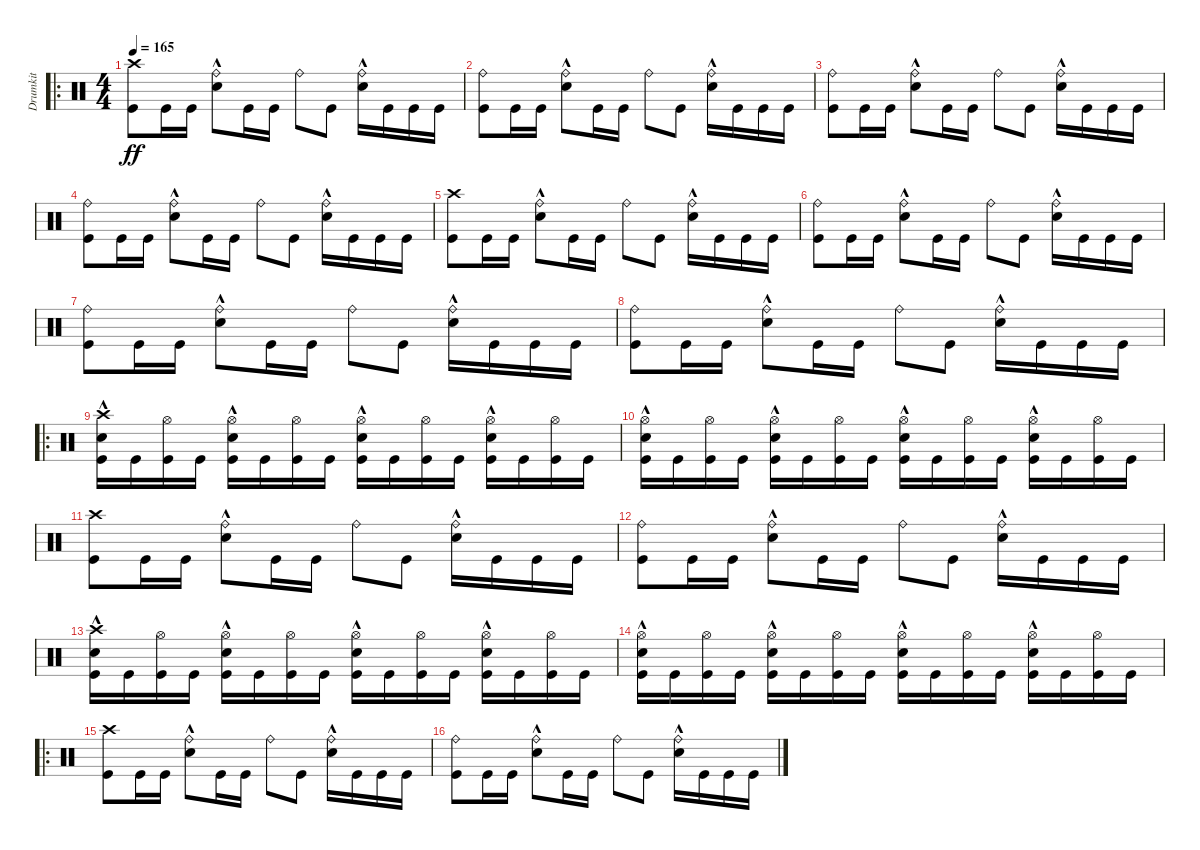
\track ("Drumkit" "Drumkit") {instrument percussion}
\staff {score}
\articulation defaults
\ro
\ts (4 4)
\tempo 165
\clef neutral
\ks c
("Kick (hit)" "Crash high (hit)").8{dy ff} "Kick (hit)".16 "Kick (hit)".16 ("Snare (hit) 2"{hac} "Ride (bell)").8 "Kick (hit)".16 "Kick (hit)".16 "Ride (bell)".8 "Kick (hit)".8 ("Snare (hit) 2"{hac} "Ride (bell)").16 "Kick (hit)".16 "Kick (hit)".16 "Kick (hit)".16 |
("Kick (hit)" "Ride (bell)").8 "Kick (hit)".16 "Kick (hit)".16 ("Snare (hit) 2"{hac} "Ride (bell)").8 "Kick (hit)".16 "Kick (hit)".16 "Ride (bell)".8 "Kick (hit)".8 ("Snare (hit) 2"{hac} "Ride (bell)").16 "Kick (hit)".16 "Kick (hit)".16 "Kick (hit)".16 |
("Kick (hit)" "Ride (bell)").8 "Kick (hit)".16 "Kick (hit)".16 ("Snare (hit) 2"{hac} "Ride (bell)").8 "Kick (hit)".16 "Kick (hit)".16 "Ride (bell)".8 "Kick (hit)".8 ("Snare (hit) 2"{hac} "Ride (bell)").16 "Kick (hit)".16 "Kick (hit)".16 "Kick (hit)".16 |
("Kick (hit)" "Ride (bell)").8 "Kick (hit)".16 "Kick (hit)".16 ("Snare (hit) 2"{hac} "Ride (bell)").8 "Kick (hit)".16 "Kick (hit)".16 "Ride (bell)".8 "Kick (hit)".8 ("Snare (hit) 2"{hac} "Ride (bell)").16 "Kick (hit)".16 "Kick (hit)".16 "Kick (hit)".16 |
("Kick (hit)" "Crash high (hit)").8 "Kick (hit)".16 "Kick (hit)".16 ("Snare (hit) 2"{hac} "Ride (bell)").8 "Kick (hit)".16 "Kick (hit)".16 "Ride (bell)".8 "Kick (hit)".8 ("Snare (hit) 2"{hac} "Ride (bell)").16 "Kick (hit)".16 "Kick (hit)".16 "Kick (hit)".16 |
("Kick (hit)" "Ride (bell)").8 "Kick (hit)".16 "Kick (hit)".16 ("Snare (hit) 2"{hac} "Ride (bell)").8 "Kick (hit)".16 "Kick (hit)".16 "Ride (bell)".8 "Kick (hit)".8 ("Snare (hit) 2"{hac} "Ride (bell)").16 "Kick (hit)".16 "Kick (hit)".16 "Kick (hit)".16 |
("Kick (hit)" "Ride (bell)").8 "Kick (hit)".16 "Kick (hit)".16 ("Snare (hit) 2"{hac} "Ride (bell)").8 "Kick (hit)".16 "Kick (hit)".16 "Ride (bell)".8 "Kick (hit)".8 ("Snare (hit) 2"{hac} "Ride (bell)").16 "Kick (hit)".16 "Kick (hit)".16 "Kick (hit)".16 |
("Kick (hit)" "Ride (bell)").8 "Kick (hit)".16 "Kick (hit)".16 ("Snare (hit) 2"{hac} "Ride (bell)").8 "Kick (hit)".16 "Kick (hit)".16 "Ride (bell)".8 "Kick (hit)".8 ("Snare (hit) 2"{hac} "Ride (bell)").16 "Kick (hit)".16 "Kick (hit)".16 "Kick (hit)".16 |
\ro
("Kick (hit)" "Crash high (hit)" "Snare (hit) 2"{hac}).16 "Kick (hit)".16 ("Kick (hit)" "Hi-Hat (open)").16 "Kick (hit)".16 ("Kick (hit)" "Snare (hit) 2"{hac} "Hi-Hat (open)").16 "Kick (hit)".16 ("Kick (hit)" "Hi-Hat (open)").16 "Kick (hit)".16 ("Kick (hit)" "Snare (hit) 2"{hac} "Hi-Hat (open)").16 "Kick (hit)".16 ("Kick (hit)" "Hi-Hat (open)").16 "Kick (hit)".16 ("Kick (hit)" "Snare (hit) 2"{hac} "Hi-Hat (open)").16 "Kick (hit)".16 ("Kick (hit)" "Hi-Hat (open)").16 "Kick (hit)".16 |
("Kick (hit)" "Snare (hit) 2"{hac} "Hi-Hat (open)").16 "Kick (hit)".16 ("Kick (hit)" "Hi-Hat (open)").16 "Kick (hit)".16 ("Kick (hit)" "Snare (hit) 2"{hac} "Hi-Hat (open)").16 "Kick (hit)".16 ("Kick (hit)" "Hi-Hat (open)").16 "Kick (hit)".16 ("Kick (hit)" "Snare (hit) 2"{hac} "Hi-Hat (open)").16 "Kick (hit)".16 ("Kick (hit)" "Hi-Hat (open)").16 "Kick (hit)".16 ("Kick (hit)" "Snare (hit) 2"{hac} "Hi-Hat (open)").16 "Kick (hit)".16 ("Kick (hit)" "Hi-Hat (open)").16 "Kick (hit)".16 |
("Kick (hit)" "Crash high (hit)").8 "Kick (hit)".16 "Kick (hit)".16 ("Snare (hit) 2"{hac} "Ride (bell)").8 "Kick (hit)".16 "Kick (hit)".16 "Ride (bell)".8 "Kick (hit)".8 ("Snare (hit) 2"{hac} "Ride (bell)").16 "Kick (hit)".16 "Kick (hit)".16 "Kick (hit)".16 |
("Kick (hit)" "Ride (bell)").8 "Kick (hit)".16 "Kick (hit)".16 ("Snare (hit) 2"{hac} "Ride (bell)").8 "Kick (hit)".16 "Kick (hit)".16 "Ride (bell)".8 "Kick (hit)".8 ("Snare (hit) 2"{hac} "Ride (bell)").16 "Kick (hit)".16 "Kick (hit)".16 "Kick (hit)".16 |
("Kick (hit)" "Crash high (hit)" "Snare (hit) 2"{hac}).16 "Kick (hit)".16 ("Kick (hit)" "Hi-Hat (open)").16 "Kick (hit)".16 ("Kick (hit)" "Snare (hit) 2"{hac} "Hi-Hat (open)").16 "Kick (hit)".16 ("Kick (hit)" "Hi-Hat (open)").16 "Kick (hit)".16 ("Kick (hit)" "Snare (hit) 2"{hac} "Hi-Hat (open)").16 "Kick (hit)".16 ("Kick (hit)" "Hi-Hat (open)").16 "Kick (hit)".16 ("Kick (hit)" "Snare (hit) 2"{hac} "Hi-Hat (open)").16 "Kick (hit)".16 ("Kick (hit)" "Hi-Hat (open)").16 "Kick (hit)".16 |
("Kick (hit)" "Snare (hit) 2"{hac} "Hi-Hat (open)").16 "Kick (hit)".16 ("Kick (hit)" "Hi-Hat (open)").16 "Kick (hit)".16 ("Kick (hit)" "Snare (hit) 2"{hac} "Hi-Hat (open)").16 "Kick (hit)".16 ("Kick (hit)" "Hi-Hat (open)").16 "Kick (hit)".16 ("Kick (hit)" "Snare (hit) 2"{hac} "Hi-Hat (open)").16 "Kick (hit)".16 ("Kick (hit)" "Hi-Hat (open)").16 "Kick (hit)".16 ("Kick (hit)" "Snare (hit) 2"{hac} "Hi-Hat (open)").16 "Kick (hit)".16 ("Kick (hit)" "Hi-Hat (open)").16 "Kick (hit)".16 |
\ro
("Kick (hit)" "Crash high (hit)").8 "Kick (hit)".16 "Kick (hit)".16 ("Snare (hit) 2"{hac} "Ride (bell)").8 "Kick (hit)".16 "Kick (hit)".16 "Ride (bell)".8 "Kick (hit)".8 ("Snare (hit) 2"{hac} "Ride (bell)").16 "Kick (hit)".16 "Kick (hit)".16 "Kick (hit)".16 |
("Kick (hit)" "Ride (bell)").8 "Kick (hit)".16 "Kick (hit)".16 ("Snare (hit) 2"{hac} "Ride (bell)").8 "Kick (hit)".16 "Kick (hit)".16 "Ride (bell)".8 "Kick (hit)".8 ("Snare (hit) 2"{hac} "Ride (bell)").16 "Kick (hit)".16 "Kick (hit)".16 "Kick (hit)".16
